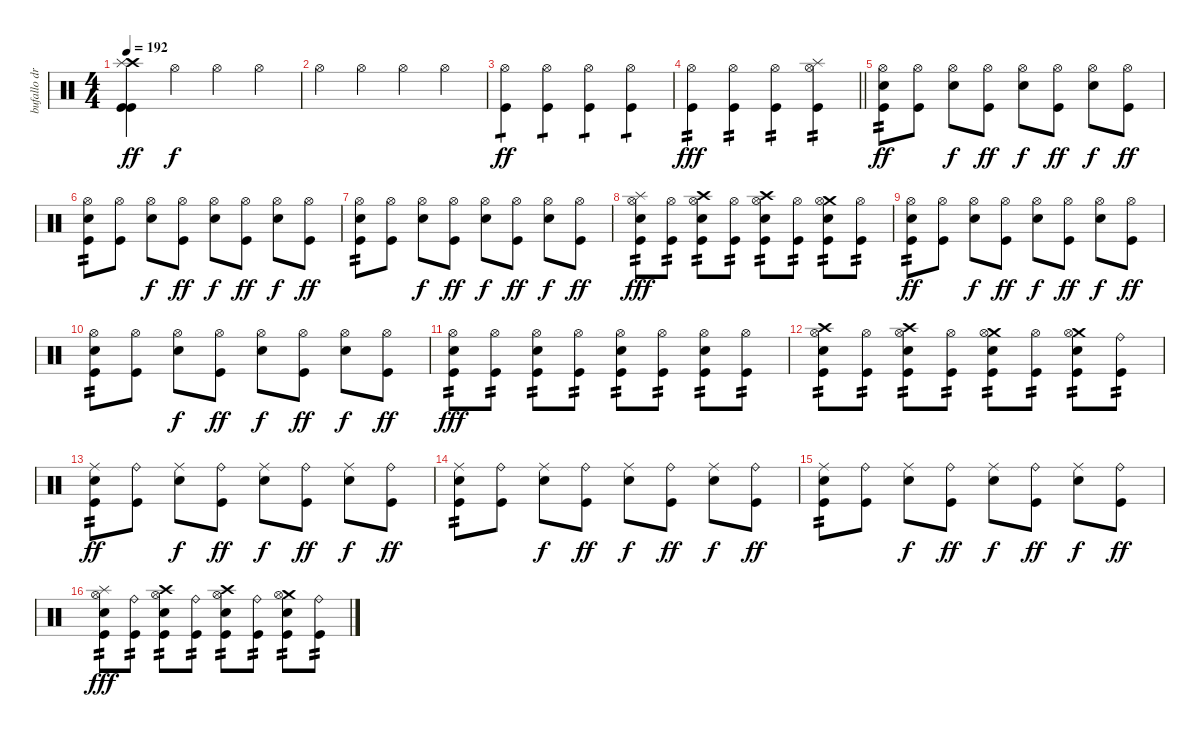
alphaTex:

\track ("bufallo drums" "bufallo dr") {instrument percussion}
\staff {score}
\articulation defaults
\ts (4 4)
\tempo 192
\clef neutral
\ks c
("Crash high (hit)" "Splash (hit)" "Kick (hit)" "Kick (hit)").4{dy ff} "Hi-Hat (open)".4{dy f} "Hi-Hat (open)".4 "Hi-Hat (open)".4 |
"Hi-Hat (open)".4 "Hi-Hat (open)".4 "Hi-Hat (open)".4 "Hi-Hat (open)".4 |
("Hi-Hat (open)" "Kick (hit)").4{tp 1 dy ff} ("Hi-Hat (open)" "Kick (hit)").4{tp 1} ("Hi-Hat (open)" "Kick (hit)").4{tp 1} ("Hi-Hat (open)" "Kick (hit)").4{tp 1} |
\barLineRight lightlight
("Hi-Hat (open)" "Kick (hit)").4{tp 2 dy fff} ("Hi-Hat (open)" "Kick (hit)").4{tp 2} ("Hi-Hat (open)" "Kick (hit)").4{tp 2} ("Hi-Hat (open)" "Splash (hit)" "Kick (hit)").4{tp 2} |
("Hi-Hat (open)" "Electric Snare (hit)" "Kick (hit)").8{tp 2 dy ff} ("Hi-Hat (open)" "Kick (hit)").8 ("Hi-Hat (open)" "Electric Snare (hit)").8{dy f} ("Hi-Hat (open)" "Kick (hit)").8{dy ff} ("Hi-Hat (open)" "Electric Snare (hit)").8{dy f} ("Hi-Hat (open)" "Kick (hit)").8{dy ff} ("Hi-Hat (open)" "Electric Snare (hit)").8{dy f} ("Hi-Hat (open)" "Kick (hit)").8{dy ff} |
("Hi-Hat (open)" "Electric Snare (hit)" "Kick (hit)").8{tp 2} ("Hi-Hat (open)" "Kick (hit)").8 ("Hi-Hat (open)" "Electric Snare (hit)").8{dy f} ("Hi-Hat (open)" "Kick (hit)").8{dy ff} ("Hi-Hat (open)" "Electric Snare (hit)").8{dy f} ("Hi-Hat (open)" "Kick (hit)").8{dy ff} ("Hi-Hat (open)" "Electric Snare (hit)").8{dy f} ("Hi-Hat (open)" "Kick (hit)").8{dy ff} |
("Hi-Hat (open)" "Electric Snare (hit)" "Kick (hit)").8{tp 2} ("Hi-Hat (open)" "Kick (hit)").8 ("Hi-Hat (open)" "Electric Snare (hit)").8{dy f} ("Hi-Hat (open)" "Kick (hit)").8{dy ff} ("Hi-Hat (open)" "Electric Snare (hit)").8{dy f} ("Hi-Hat (open)" "Kick (hit)").8{dy ff} ("Hi-Hat (open)" "Electric Snare (hit)").8{dy f} ("Hi-Hat (open)" "Kick (hit)").8{dy ff} |
("Splash (hit)" "Hi-Hat (open)" "Electric Snare (hit)" "Kick (hit)").8{tp 2 dy fff} ("Hi-Hat (open)" "Kick (hit)").8{tp 2} ("Crash high (hit)" "Hi-Hat (open)" "Electric Snare (hit)" "Kick (hit)").8{tp 2} ("Hi-Hat (open)" "Kick (hit)").8{tp 2} ("Crash high (hit)" "Hi-Hat (open)" "Electric Snare (hit)" "Kick (hit)").8{tp 2} ("Hi-Hat (open)" "Kick (hit)").8{tp 2} ("Crash medium (hit)" "Hi-Hat (open)" "Electric Snare (hit)" "Kick (hit)").8{tp 2} ("Hi-Hat (open)" "Kick (hit)").8{tp 2} |
("Hi-Hat (open)" "Electric Snare (hit)" "Kick (hit)").8{tp 2 dy ff} ("Hi-Hat (open)" "Kick (hit)").8 ("Hi-Hat (open)" "Electric Snare (hit)").8{dy f} ("Hi-Hat (open)" "Kick (hit)").8{dy ff} ("Hi-Hat (open)" "Electric Snare (hit)").8{dy f} ("Hi-Hat (open)" "Kick (hit)").8{dy ff} ("Hi-Hat (open)" "Electric Snare (hit)").8{dy f} ("Hi-Hat (open)" "Kick (hit)").8{dy ff} |
("Hi-Hat (open)" "Electric Snare (hit)" "Kick (hit)").8{tp 2} ("Hi-Hat (open)" "Kick (hit)").8 ("Hi-Hat (open)" "Electric Snare (hit)").8{dy f} ("Hi-Hat (open)" "Kick (hit)").8{dy ff} ("Hi-Hat (open)" "Electric Snare (hit)").8{dy f} ("Hi-Hat (open)" "Kick (hit)").8{dy ff} ("Hi-Hat (open)" "Electric Snare (hit)").8{dy f} ("Hi-Hat (open)" "Kick (hit)").8{dy ff} |
("Hi-Hat (open)" "Electric Snare (hit)" "Kick (hit)").8{tp 2 dy fff} ("Hi-Hat (open)" "Kick (hit)").8{tp 2} ("Hi-Hat (open)" "Electric Snare (hit)" "Kick (hit)").8{tp 2} ("Hi-Hat (open)" "Kick (hit)").8{tp 2} ("Hi-Hat (open)" "Electric Snare (hit)" "Kick (hit)").8{tp 2} ("Hi-Hat (open)" "Kick (hit)").8{tp 2} ("Hi-Hat (open)" "Electric Snare (hit)" "Kick (hit)").8{tp 2} ("Hi-Hat (open)" "Kick (hit)").8{tp 2} |
("Crash high (hit)" "Hi-Hat (open)" "Electric Snare (hit)" "Kick (hit)").8{tp 2} ("Hi-Hat (open)" "Kick (hit)").8{tp 2} ("Crash high (hit)" "Hi-Hat (open)" "Electric Snare (hit)" "Kick (hit)").8{tp 2} ("Hi-Hat (open)" "Kick (hit)").8{tp 2} ("Crash medium (hit)" "Hi-Hat (open)" "Electric Snare (hit)" "Kick (hit)").8{tp 2} ("Hi-Hat (open)" "Kick (hit)").8{tp 2} ("Crash medium (hit)" "Hi-Hat (open)" "Electric Snare (hit)" "Kick (hit)").8{tp 2} ("Ride (bell)" "Kick (hit)").8{tp 2} |
("Ride (middle)" "Electric Snare (hit)" "Kick (hit)").8{tp 2 dy ff} ("Ride (bell)" "Kick (hit)").8 ("Ride (middle)" "Electric Snare (hit)").8{dy f} ("Ride (bell)" "Kick (hit)").8{dy ff} ("Ride (middle)" "Electric Snare (hit)").8{dy f} ("Ride (bell)" "Kick (hit)").8{dy ff} ("Ride (middle)" "Electric Snare (hit)").8{dy f} ("Ride (bell)" "Kick (hit)").8{dy ff} |
("Ride (middle)" "Electric Snare (hit)" "Kick (hit)").8{tp 2} ("Ride (bell)" "Kick (hit)").8 ("Ride (middle)" "Electric Snare (hit)").8{dy f} ("Ride (bell)" "Kick (hit)").8{dy ff} ("Ride (middle)" "Electric Snare (hit)").8{dy f} ("Ride (bell)" "Kick (hit)").8{dy ff} ("Ride (middle)" "Electric Snare (hit)").8{dy f} ("Ride (bell)" "Kick (hit)").8{dy ff} |
("Ride (middle)" "Electric Snare (hit)" "Kick (hit)").8{tp 2} ("Ride (bell)" "Kick (hit)").8 ("Ride (middle)" "Electric Snare (hit)").8{dy f} ("Ride (bell)" "Kick (hit)").8{dy ff} ("Ride (middle)" "Electric Snare (hit)").8{dy f} ("Ride (bell)" "Kick (hit)").8{dy ff} ("Ride (middle)" "Electric Snare (hit)").8{dy f} ("Ride (bell)" "Kick (hit)").8{dy ff} |
("Splash (hit)" "Hi-Hat (open)" "Electric Snare (hit)" "Kick (hit)").8{tp 2 dy fff} ("Ride (bell)" "Kick (hit)").8{tp 2} ("Crash high (hit)" "Hi-Hat (open)" "Electric Snare (hit)" "Kick (hit)").8{tp 2} ("Ride (bell)" "Kick (hit)").8{tp 2} ("Crash high (hit)" "Hi-Hat (open)" "Electric Snare (hit)" "Kick (hit)").8{tp 2} ("Ride (bell)" "Kick (hit)").8{tp 2} ("Crash medium (hit)" "Hi-Hat (open)" "Electric Snare (hit)" "Kick (hit)").8{tp 2} ("Ride (bell)" "Kick (hit)").8{tp 2}
